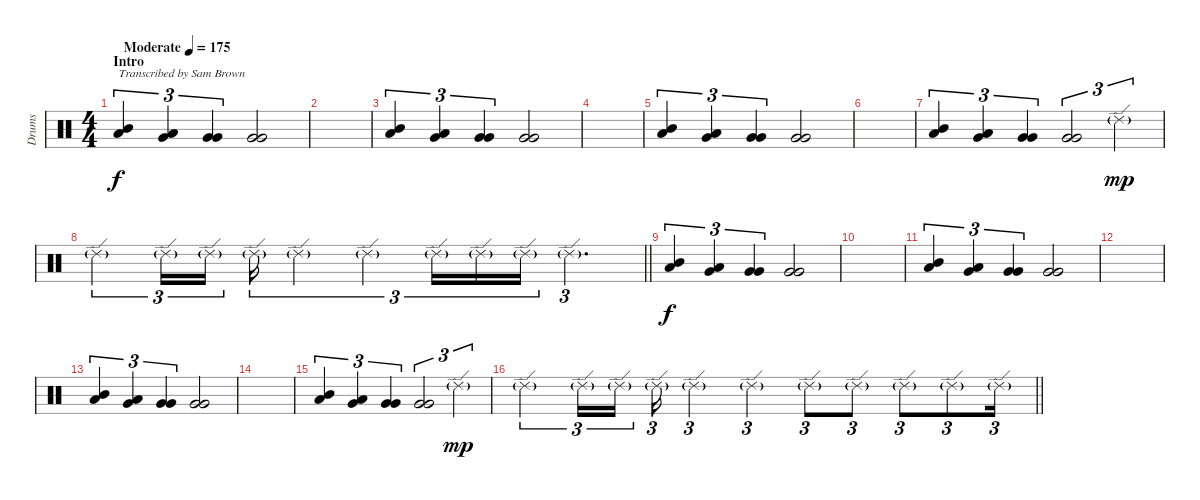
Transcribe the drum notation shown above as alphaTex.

\track ("Drums" "Drums") {instrument percussion}
\staff {score}
\articulation defaults
\ts (4 4)
\section ("" "Intro")
\tempo (175 "Moderate")
\clef neutral
\ks c
("Mid Tom (hit)" "Low Tom (hit)").4{tu (3 2) txt "Transcribed by Sam Brown" dy f} ("Low Tom (hit)" "Very Low Tom (hit)").4{tu (3 2)} ("Very Low Tom (hit)" "Very Low Tom (hit)").4{tu (3 2)} ("Very Low Tom (hit)" "Very Low Tom (hit)").2 |
|
("Mid Tom (hit)" "Low Tom (hit)").4{tu (3 2)} ("Low Tom (hit)" "Very Low Tom (hit)").4{tu (3 2)} ("Very Low Tom (hit)" "Very Low Tom (hit)").4{tu (3 2)} ("Very Low Tom (hit)" "Very Low Tom (hit)").2 |
|
("Mid Tom (hit)" "Low Tom (hit)").4{tu (3 2)} ("Low Tom (hit)" "Very Low Tom (hit)").4{tu (3 2)} ("Very Low Tom (hit)" "Very Low Tom (hit)").4{tu (3 2)} ("Very Low Tom (hit)" "Very Low Tom (hit)").2 |
|
("Mid Tom (hit)" "Low Tom (hit)").4{tu (3 2)} ("Low Tom (hit)" "Very Low Tom (hit)").4{tu (3 2)} ("Very Low Tom (hit)" "Very Low Tom (hit)").4{tu (3 2)} ("Very Low Tom (hit)" "Very Low Tom (hit)").2{tu (3 2)} "Ride (edge) 2"{g}.4{tu (3 2) dy mp} |
\barLineRight lightlight "Ride (edge) 2"{g}.4{tu (3 2)} "Ride (edge) 2"{g}.16{tu (3 2)} "Ride (edge) 2"{g}.16{tu (3 2)} "Ride (edge) 2"{g}.16{tu (3 2)} "Ride (edge) 2"{g}.4{tu (3 2)} "Ride (edge) 2"{g}.4{tu (3 2)} "Ride (edge) 2"{g}.16{tu (3 2)} "Ride (edge) 2"{g}.16{tu (3 2)} "Ride (edge) 2"{g}.16{tu (3 2)} "Ride (edge) 2"{g}.4{d tu (3 2)}
|
\section ("" "")
("Mid Tom (hit)" "Low Tom (hit)").4{tu (3 2) dy f} ("Low Tom (hit)" "Very Low Tom (hit)").4{tu (3 2)} ("Very Low Tom (hit)" "Very Low Tom (hit)").4{tu (3 2)} ("Very Low Tom (hit)" "Very Low Tom (hit)").2 |
|
("Mid Tom (hit)" "Low Tom (hit)").4{tu (3 2)} ("Low Tom (hit)" "Very Low Tom (hit)").4{tu (3 2)} ("Very Low Tom (hit)" "Very Low Tom (hit)").4{tu (3 2)} ("Very Low Tom (hit)" "Very Low Tom (hit)").2 |
|
("Mid Tom (hit)" "Low Tom (hit)").4{tu (3 2)} ("Low Tom (hit)" "Very Low Tom (hit)").4{tu (3 2)} ("Very Low Tom (hit)" "Very Low Tom (hit)").4{tu (3 2)} ("Very Low Tom (hit)" "Very Low Tom (hit)").2 |
|
("Mid Tom (hit)" "Low Tom (hit)").4{tu (3 2)} ("Low Tom (hit)" "Very Low Tom (hit)").4{tu (3 2)} ("Very Low Tom (hit)" "Very Low Tom (hit)").4{tu (3 2)} ("Very Low Tom (hit)" "Very Low Tom (hit)").2{tu (3 2)} "Ride (edge) 2"{g}.4{tu (3 2) dy mp} |
\barLineRight lightlight "Ride (edge) 2"{g}.4{tu (3 2)} "Ride (edge) 2"{g}.16{tu (3 2)} "Ride (edge) 2"{g}.16{tu (3 2)} "Ride (edge) 2"{g}.16{tu (3 2)} "Ride (edge) 2"{g}.4{tu (3 2)} "Ride (edge) 2"{g}.4{tu (3 2)} "Ride (edge) 2"{g}.8{tu (3 2)} "Ride (edge) 2"{g}.8{tu (3 2)} "Ride (edge) 2"{g}.8{tu (3 2)} "Ride (edge) 2"{g}.8{tu (3 2)} "Ride (edge) 2"{g}.16{tu (3 2)}
